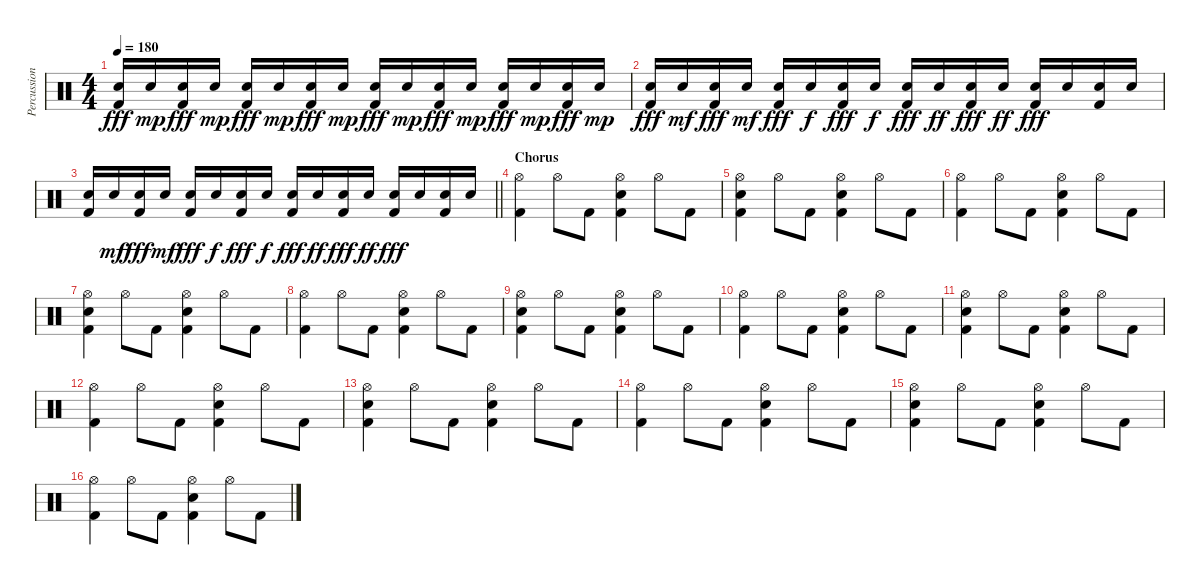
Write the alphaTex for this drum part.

\track ("Percussion" "Percussion") {instrument percussion}
\staff {score}
\articulation defaults
\ts (4 4)
\tempo 180
\clef neutral
\ks c
("Electric Snare (hit)" "Kick (hit) 2").16{dy fff} "Electric Snare (hit)".16{dy mp} ("Electric Snare (hit)" "Kick (hit) 2").16{dy fff} "Electric Snare (hit)".16{dy mp} ("Electric Snare (hit)" "Kick (hit) 2").16{dy fff} "Electric Snare (hit)".16{dy mp} ("Electric Snare (hit)" "Kick (hit) 2").16{dy fff} "Electric Snare (hit)".16{dy mp} ("Electric Snare (hit)" "Kick (hit) 2").16{dy fff} "Electric Snare (hit)".16{dy mp} ("Electric Snare (hit)" "Kick (hit) 2").16{dy fff} "Electric Snare (hit)".16{dy mp} ("Electric Snare (hit)" "Kick (hit) 2").16{dy fff} "Electric Snare (hit)".16{dy mp} ("Electric Snare (hit)" "Kick (hit) 2").16{dy fff} "Electric Snare (hit)".16{dy mp} |
("Electric Snare (hit)" "Kick (hit) 2").16{dy fff} "Electric Snare (hit)".16{dy mf} ("Electric Snare (hit)" "Kick (hit) 2").16{dy fff} "Electric Snare (hit)".16{dy mf} ("Electric Snare (hit)" "Kick (hit) 2").16{dy fff} "Electric Snare (hit)".16{dy f} ("Electric Snare (hit)" "Kick (hit) 2").16{dy fff} "Electric Snare (hit)".16{dy f} ("Electric Snare (hit)" "Kick (hit) 2").16{dy fff} "Electric Snare (hit)".16{dy ff} ("Electric Snare (hit)" "Kick (hit) 2").16{dy fff} "Electric Snare (hit)".16{dy ff} ("Electric Snare (hit)" "Kick (hit) 2").16{dy fff} "Electric Snare (hit)".16 ("Electric Snare (hit)" "Kick (hit) 2").16 "Electric Snare (hit)".16 |
\barLineRight lightlight
("Electric Snare (hit)" "Kick (hit) 2").16 "Electric Snare (hit)".16{dy mf} ("Electric Snare (hit)" "Kick (hit) 2").16{dy fff} "Electric Snare (hit)".16{dy mf} ("Electric Snare (hit)" "Kick (hit) 2").16{dy fff} "Electric Snare (hit)".16{dy f} ("Electric Snare (hit)" "Kick (hit) 2").16{dy fff} "Electric Snare (hit)".16{dy f} ("Electric Snare (hit)" "Kick (hit) 2").16{dy fff} "Electric Snare (hit)".16{dy ff} ("Electric Snare (hit)" "Kick (hit) 2").16{dy fff} "Electric Snare (hit)".16{dy ff} ("Electric Snare (hit)" "Kick (hit) 2").16{dy fff} "Electric Snare (hit)".16 ("Electric Snare (hit)" "Kick (hit) 2").16 "Electric Snare (hit)".16 |
\section ("" "Chorus")
("Hi-Hat (open)" "Kick (hit) 2").4 "Hi-Hat (open)".8 "Kick (hit) 2".8 ("Hi-Hat (open)" "Electric Snare (hit)" "Kick (hit) 2").4 "Hi-Hat (open)".8 "Kick (hit) 2".8 |
("Hi-Hat (open)" "Electric Snare (hit)" "Kick (hit) 2").4 "Hi-Hat (open)".8 "Kick (hit) 2".8 ("Hi-Hat (open)" "Electric Snare (hit)" "Kick (hit) 2").4 "Hi-Hat (open)".8 "Kick (hit) 2".8 |
("Hi-Hat (open)" "Kick (hit) 2").4 "Hi-Hat (open)".8 "Kick (hit) 2".8 ("Hi-Hat (open)" "Electric Snare (hit)" "Kick (hit) 2").4 "Hi-Hat (open)".8 "Kick (hit) 2".8 |
("Hi-Hat (open)" "Electric Snare (hit)" "Kick (hit) 2").4 "Hi-Hat (open)".8 "Kick (hit) 2".8 ("Hi-Hat (open)" "Electric Snare (hit)" "Kick (hit) 2").4 "Hi-Hat (open)".8 "Kick (hit) 2".8 |
("Hi-Hat (open)" "Kick (hit) 2").4 "Hi-Hat (open)".8 "Kick (hit) 2".8 ("Hi-Hat (open)" "Electric Snare (hit)" "Kick (hit) 2").4 "Hi-Hat (open)".8 "Kick (hit) 2".8 |
("Hi-Hat (open)" "Electric Snare (hit)" "Kick (hit) 2").4 "Hi-Hat (open)".8 "Kick (hit) 2".8 ("Hi-Hat (open)" "Electric Snare (hit)" "Kick (hit) 2").4 "Hi-Hat (open)".8 "Kick (hit) 2".8 |
("Hi-Hat (open)" "Kick (hit) 2").4 "Hi-Hat (open)".8 "Kick (hit) 2".8 ("Hi-Hat (open)" "Electric Snare (hit)" "Kick (hit) 2").4 "Hi-Hat (open)".8 "Kick (hit) 2".8 |
("Hi-Hat (open)" "Electric Snare (hit)" "Kick (hit) 2").4 "Hi-Hat (open)".8 "Kick (hit) 2".8 ("Hi-Hat (open)" "Electric Snare (hit)" "Kick (hit) 2").4 "Hi-Hat (open)".8 "Kick (hit) 2".8 |
("Hi-Hat (open)" "Kick (hit) 2").4 "Hi-Hat (open)".8 "Kick (hit) 2".8 ("Hi-Hat (open)" "Electric Snare (hit)" "Kick (hit) 2").4 "Hi-Hat (open)".8 "Kick (hit) 2".8 |
("Hi-Hat (open)" "Electric Snare (hit)" "Kick (hit) 2").4 "Hi-Hat (open)".8 "Kick (hit) 2".8 ("Hi-Hat (open)" "Electric Snare (hit)" "Kick (hit) 2").4 "Hi-Hat (open)".8 "Kick (hit) 2".8 |
("Hi-Hat (open)" "Kick (hit) 2").4 "Hi-Hat (open)".8 "Kick (hit) 2".8 ("Hi-Hat (open)" "Electric Snare (hit)" "Kick (hit) 2").4 "Hi-Hat (open)".8 "Kick (hit) 2".8 |
("Hi-Hat (open)" "Electric Snare (hit)" "Kick (hit) 2").4 "Hi-Hat (open)".8 "Kick (hit) 2".8 ("Hi-Hat (open)" "Electric Snare (hit)" "Kick (hit) 2").4 "Hi-Hat (open)".8 "Kick (hit) 2".8 |
("Hi-Hat (open)" "Kick (hit) 2").4 "Hi-Hat (open)".8 "Kick (hit) 2".8 ("Hi-Hat (open)" "Electric Snare (hit)" "Kick (hit) 2").4 "Hi-Hat (open)".8 "Kick (hit) 2".8
